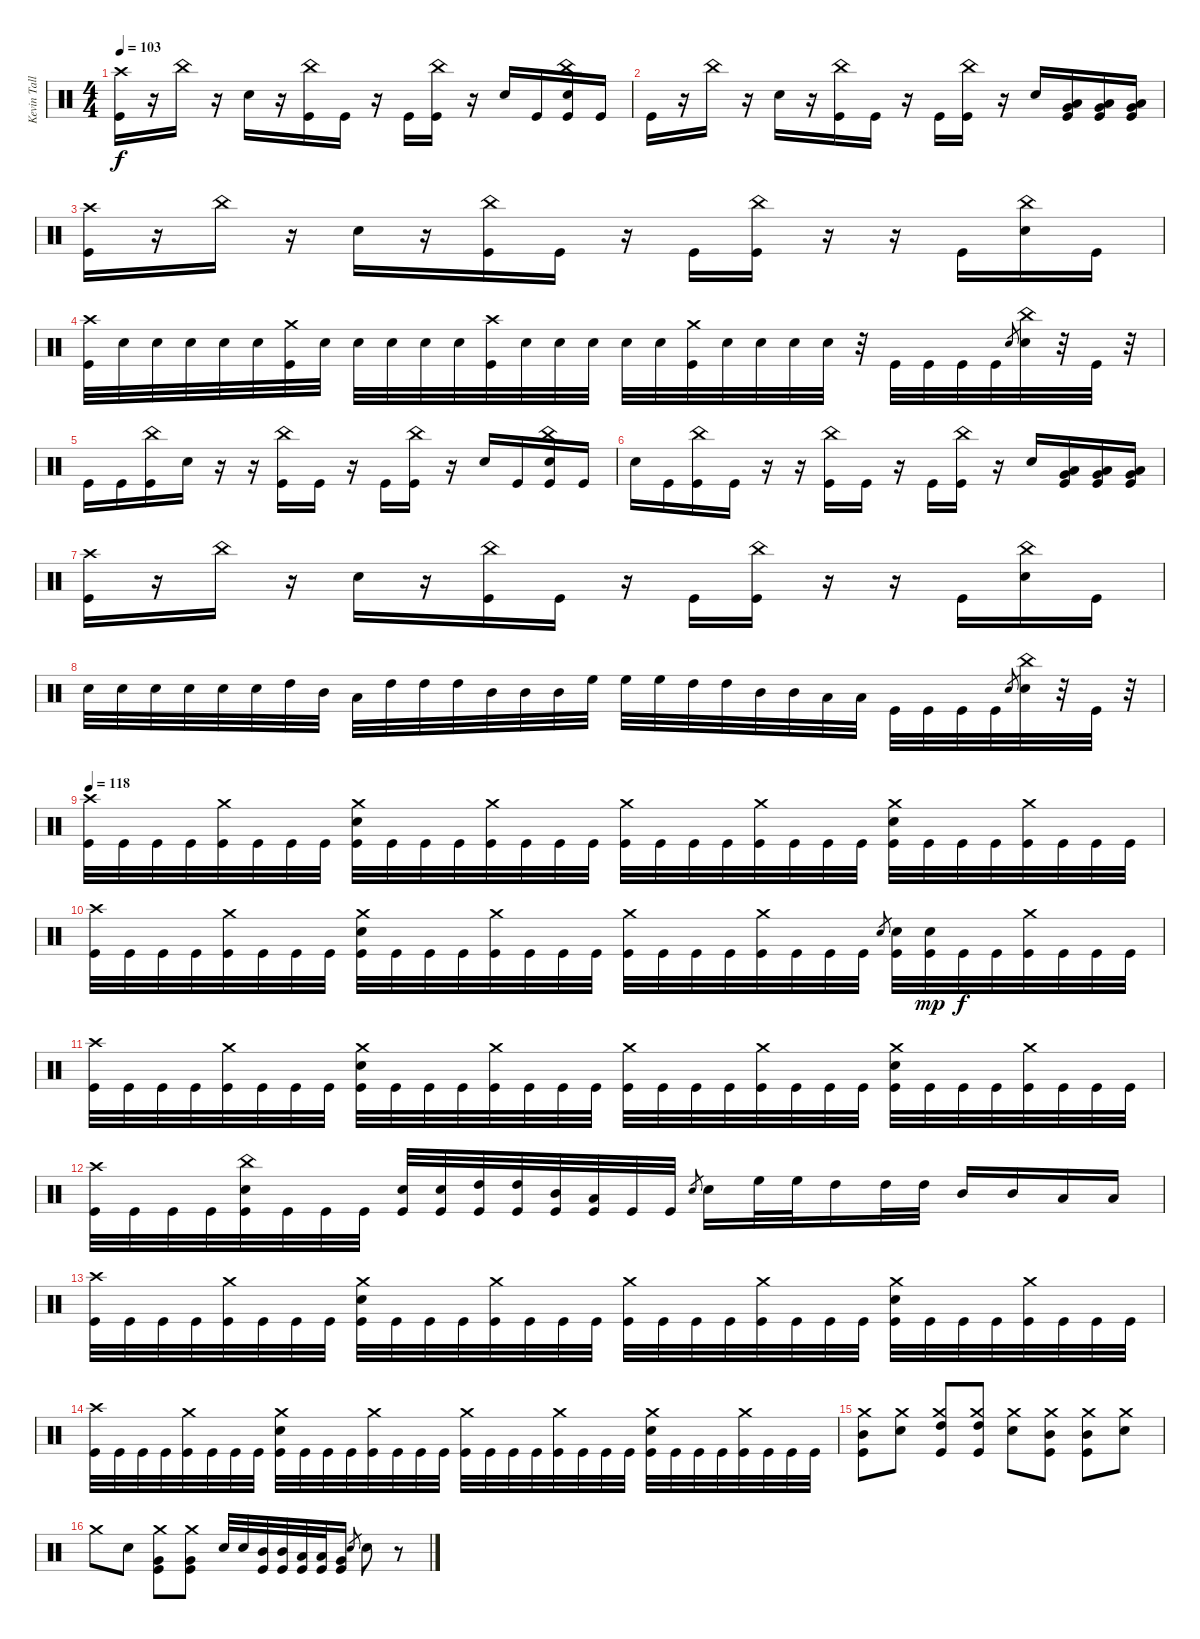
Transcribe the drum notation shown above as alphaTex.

\track ("Kevin Talley" "Kevin Tall") {instrument percussion}
\staff {score}
\articulation defaults
\ts (4 4)
\tempo 103
\clef neutral
\ks c
("Crash high (hit)" "Kick (hit)").16{dy f} r.16 "China (hit)".16 r.16 "Electric Snare (hit)".16 r.16 ("China (hit)" "Kick (hit)").16 "Kick (hit)".16 r.16 "Kick (hit)".16 ("China (hit)" "Kick (hit)").16 r.16 "Electric Snare (hit)".16 "Kick (hit)".16 ("China (hit)" "Electric Snare (hit)" "Kick (hit)").16 "Kick (hit)".16 |
"Kick (hit)".16 r.16 "China (hit)".16 r.16 "Electric Snare (hit)".16 r.16 ("China (hit)" "Kick (hit)").16 "Kick (hit)".16 r.16 "Kick (hit)".16 ("China (hit)" "Kick (hit)").16 r.16 "Electric Snare (hit)".16 ("Very Low Tom (hit)" "Low Tom (hit)" "Kick (hit)").16 ("Very Low Tom (hit)" "Low Tom (hit)" "Kick (hit)").16 ("Very Low Tom (hit)" "Low Tom (hit)" "Kick (hit)").16 |
("Crash high (hit)" "Kick (hit)").16 r.16 "China (hit)".16 r.16 "Electric Snare (hit)".16 r.16 ("China (hit)" "Kick (hit)").16 "Kick (hit)".16 r.16 "Kick (hit)".16 ("China (hit)" "Kick (hit)").16 r.16 r.16 "Kick (hit)".16 ("China (hit)" "Electric Snare (hit)").16 "Kick (hit)".16 |
("Crash high (hit)" "Kick (hit)").32 "Electric Snare (hit)".32 "Electric Snare (hit)".32 "Electric Snare (hit)".32 "Electric Snare (hit)".32 "Electric Snare (hit)".32 ("Crash medium (hit)" "Kick (hit)").32 "Electric Snare (hit)".32 "Electric Snare (hit)".32 "Electric Snare (hit)".32 "Electric Snare (hit)".32 "Electric Snare (hit)".32 ("Crash high (hit)" "Kick (hit)").32 "Electric Snare (hit)".32 "Electric Snare (hit)".32 "Electric Snare (hit)".32 "Electric Snare (hit)".32 "Electric Snare (hit)".32 ("Crash medium (hit)" "Kick (hit)").32 "Electric Snare (hit)".32 "Electric Snare (hit)".32 "Electric Snare (hit)".32 "Electric Snare (hit)".32 r.32 "Kick (hit)".32 "Kick (hit)".32 "Kick (hit)".32 "Kick (hit)".32 "Electric Snare (hit)".8{gr} ("China (hit)" "Electric Snare (hit)").32 r.32 "Kick (hit)".32 r.32 |
"Kick (hit)".16 "Kick (hit)".16 ("China (hit)" "Kick (hit)").16 "Electric Snare (hit)".16 r.16 r.16 ("China (hit)" "Kick (hit)").16 "Kick (hit)".16 r.16 "Kick (hit)".16 ("China (hit)" "Kick (hit)").16 r.16 "Electric Snare (hit)".16 "Kick (hit)".16 ("China (hit)" "Electric Snare (hit)" "Kick (hit)").16 "Kick (hit)".16 |
"Electric Snare (hit)".16 "Kick (hit)".16 ("China (hit)" "Kick (hit)").16 "Kick (hit)".16 r.16 r.16 ("China (hit)" "Kick (hit)").16 "Kick (hit)".16 r.16 "Kick (hit)".16 ("China (hit)" "Kick (hit)").16 r.16 "Electric Snare (hit)".16 ("Very Low Tom (hit)" "Low Tom (hit)" "Kick (hit)").16 ("Very Low Tom (hit)" "Low Tom (hit)" "Kick (hit)").16 ("Very Low Tom (hit)" "Low Tom (hit)" "Kick (hit)").16 |
("Crash high (hit)" "Kick (hit)").16 r.16 "China (hit)".16 r.16 "Electric Snare (hit)".16 r.16 ("China (hit)" "Kick (hit)").16 "Kick (hit)".16 r.16 "Kick (hit)".16 ("China (hit)" "Kick (hit)").16 r.16 r.16 "Kick (hit)".16 ("China (hit)" "Electric Snare (hit)").16 "Kick (hit)".16 |
"Electric Snare (hit)".32 "Electric Snare (hit)".32 "Electric Snare (hit)".32 "Electric Snare (hit)".32 "Electric Snare (hit)".32 "Electric Snare (hit)".32 "High Tom (hit)".32 "Mid Tom (hit)".32 "Low Tom (hit)".32 "High Tom (hit)".32 "High Tom (hit)".32 "High Tom (hit)".32 "Mid Tom (hit)".32 "Mid Tom (hit)".32 "Mid Tom (hit)".32 "High Floor Tom (hit)".32 "High Floor Tom (hit)".32 "High Floor Tom (hit)".32 "High Tom (hit)".32 "High Tom (hit)".32 "Mid Tom (hit)".32 "Mid Tom (hit)".32 "Low Tom (hit)".32 "Low Tom (hit)".32 "Kick (hit)".32 "Kick (hit)".32 "Kick (hit)".32 "Kick (hit)".32 "Electric Snare (hit)".8{gr} ("China (hit)" "Electric Snare (hit)").32 r.32 "Kick (hit)".32 r.32 |
\tempo 118
("Crash high (hit)" "Kick (hit)").32 "Kick (hit)".32 "Kick (hit)".32 "Kick (hit)".32 ("Crash medium (hit)" "Kick (hit)").32 "Kick (hit)".32 "Kick (hit)".32 "Kick (hit)".32 ("Crash medium (hit)" "Electric Snare (hit)" "Kick (hit)").32 "Kick (hit)".32 "Kick (hit)".32 "Kick (hit)".32 ("Crash medium (hit)" "Kick (hit)").32 "Kick (hit)".32 "Kick (hit)".32 "Kick (hit)".32 ("Crash medium (hit)" "Kick (hit)").32 "Kick (hit)".32 "Kick (hit)".32 "Kick (hit)".32 ("Crash medium (hit)" "Kick (hit)").32 "Kick (hit)".32 "Kick (hit)".32 "Kick (hit)".32 ("Crash medium (hit)" "Electric Snare (hit)" "Kick (hit)").32 "Kick (hit)".32 "Kick (hit)".32 "Kick (hit)".32 ("Crash medium (hit)" "Kick (hit)").32 "Kick (hit)".32 "Kick (hit)".32 "Kick (hit)".32 |
("Crash high (hit)" "Kick (hit)").32 "Kick (hit)".32 "Kick (hit)".32 "Kick (hit)".32 ("Crash medium (hit)" "Kick (hit)").32 "Kick (hit)".32 "Kick (hit)".32 "Kick (hit)".32 ("Crash medium (hit)" "Electric Snare (hit)" "Kick (hit)").32 "Kick (hit)".32 "Kick (hit)".32 "Kick (hit)".32 ("Crash medium (hit)" "Kick (hit)").32 "Kick (hit)".32 "Kick (hit)".32 "Kick (hit)".32 ("Crash medium (hit)" "Kick (hit)").32 "Kick (hit)".32 "Kick (hit)".32 "Kick (hit)".32 ("Crash medium (hit)" "Kick (hit)").32 "Kick (hit)".32 "Kick (hit)".32 "Kick (hit)".32 "Electric Snare (hit)".8{gr} ("Electric Snare (hit)" "Kick (hit)").32 ("Electric Snare (hit)" "Kick (hit)").32{dy mp} "Kick (hit)".32{dy f} "Kick (hit)".32 ("Crash medium (hit)" "Kick (hit)").32 "Kick (hit)".32 "Kick (hit)".32 "Kick (hit)".32 |
("Crash high (hit)" "Kick (hit)").32 "Kick (hit)".32 "Kick (hit)".32 "Kick (hit)".32 ("Crash medium (hit)" "Kick (hit)").32 "Kick (hit)".32 "Kick (hit)".32 "Kick (hit)".32 ("Crash medium (hit)" "Electric Snare (hit)" "Kick (hit)").32 "Kick (hit)".32 "Kick (hit)".32 "Kick (hit)".32 ("Crash medium (hit)" "Kick (hit)").32 "Kick (hit)".32 "Kick (hit)".32 "Kick (hit)".32 ("Crash medium (hit)" "Kick (hit)").32 "Kick (hit)".32 "Kick (hit)".32 "Kick (hit)".32 ("Crash medium (hit)" "Kick (hit)").32 "Kick (hit)".32 "Kick (hit)".32 "Kick (hit)".32 ("Crash medium (hit)" "Electric Snare (hit)" "Kick (hit)").32 "Kick (hit)".32 "Kick (hit)".32 "Kick (hit)".32 ("Crash medium (hit)" "Kick (hit)").32 "Kick (hit)".32 "Kick (hit)".32 "Kick (hit)".32 |
("Crash high (hit)" "Kick (hit)").32 "Kick (hit)".32 "Kick (hit)".32 "Kick (hit)".32 ("China (hit)" "Electric Snare (hit)" "Kick (hit)").32 "Kick (hit)".32 "Kick (hit)".32 "Kick (hit)".32 ("Electric Snare (hit)" "Kick (hit)").32 ("Electric Snare (hit)" "Kick (hit)").32 ("High Tom (hit)" "Kick (hit)").32 ("High Tom (hit)" "Kick (hit)").32 ("Mid Tom (hit)" "Kick (hit)").32 ("Low Tom (hit)" "Kick (hit)").32 "Kick (hit)".32 "Kick (hit)".32 "Electric Snare (hit)".8{gr} "Electric Snare (hit)".16 "High Floor Tom (hit)".32 "High Floor Tom (hit)".32 "High Tom (hit)".16 "High Tom (hit)".32 "High Tom (hit)".32 "Mid Tom (hit)".16 "Mid Tom (hit)".16 "Low Tom (hit)".16 "Low Tom (hit)".16 |
("Crash high (hit)" "Kick (hit)").32 "Kick (hit)".32 "Kick (hit)".32 "Kick (hit)".32 ("Crash medium (hit)" "Kick (hit)").32 "Kick (hit)".32 "Kick (hit)".32 "Kick (hit)".32 ("Crash medium (hit)" "Electric Snare (hit)" "Kick (hit)").32 "Kick (hit)".32 "Kick (hit)".32 "Kick (hit)".32 ("Crash medium (hit)" "Kick (hit)").32 "Kick (hit)".32 "Kick (hit)".32 "Kick (hit)".32 ("Crash medium (hit)" "Kick (hit)").32 "Kick (hit)".32 "Kick (hit)".32 "Kick (hit)".32 ("Crash medium (hit)" "Kick (hit)").32 "Kick (hit)".32 "Kick (hit)".32 "Kick (hit)".32 ("Crash medium (hit)" "Electric Snare (hit)" "Kick (hit)").32 "Kick (hit)".32 "Kick (hit)".32 "Kick (hit)".32 ("Crash medium (hit)" "Kick (hit)").32 "Kick (hit)".32 "Kick (hit)".32 "Kick (hit)".32 |
("Crash high (hit)" "Kick (hit)").32 "Kick (hit)".32 "Kick (hit)".32 "Kick (hit)".32 ("Crash medium (hit)" "Kick (hit)").32 "Kick (hit)".32 "Kick (hit)".32 "Kick (hit)".32 ("Crash medium (hit)" "Electric Snare (hit)" "Kick (hit)").32 "Kick (hit)".32 "Kick (hit)".32 "Kick (hit)".32 ("Crash medium (hit)" "Kick (hit)").32 "Kick (hit)".32 "Kick (hit)".32 "Kick (hit)".32 ("Crash medium (hit)" "Kick (hit)").32 "Kick (hit)".32 "Kick (hit)".32 "Kick (hit)".32 ("Crash medium (hit)" "Kick (hit)").32 "Kick (hit)".32 "Kick (hit)".32 "Kick (hit)".32 ("Crash medium (hit)" "Electric Snare (hit)" "Kick (hit)").32 "Kick (hit)".32 "Kick (hit)".32 "Kick (hit)".32 ("Crash medium (hit)" "Kick (hit)").32 "Kick (hit)".32 "Kick (hit)".32 "Kick (hit)".32 |
("Crash medium (hit)" "Mid Tom (hit)" "Kick (hit)").8 ("Crash medium (hit)" "Electric Snare (hit)").8 ("Crash medium (hit)" "High Tom (hit)" "Kick (hit)").8 ("Crash medium (hit)" "High Tom (hit)" "Kick (hit)").8 ("Crash medium (hit)" "Electric Snare (hit)").8 ("Crash medium (hit)" "Mid Tom (hit)" "Kick (hit)").8 ("Crash medium (hit)" "Mid Tom (hit)" "Kick (hit)").8 ("Crash medium (hit)" "Electric Snare (hit)").8 |
"Crash medium (hit)".8 "Electric Snare (hit)".8 ("Crash medium (hit)" "Very Low Tom (hit)" "Kick (hit)").8 ("Crash medium (hit)" "Very Low Tom (hit)" "Kick (hit)").8 "Electric Snare (hit)".32 "Electric Snare (hit)".32 ("Mid Tom (hit)" "Kick (hit)").32 ("Mid Tom (hit)" "Kick (hit)").32 ("Low Tom (hit)" "Kick (hit)").32 ("Low Tom (hit)" "Kick (hit)").32 ("Very Low Tom (hit)" "Kick (hit)").16 "Electric Snare (hit)".8{gr} "Electric Snare (hit)".8 r.8
